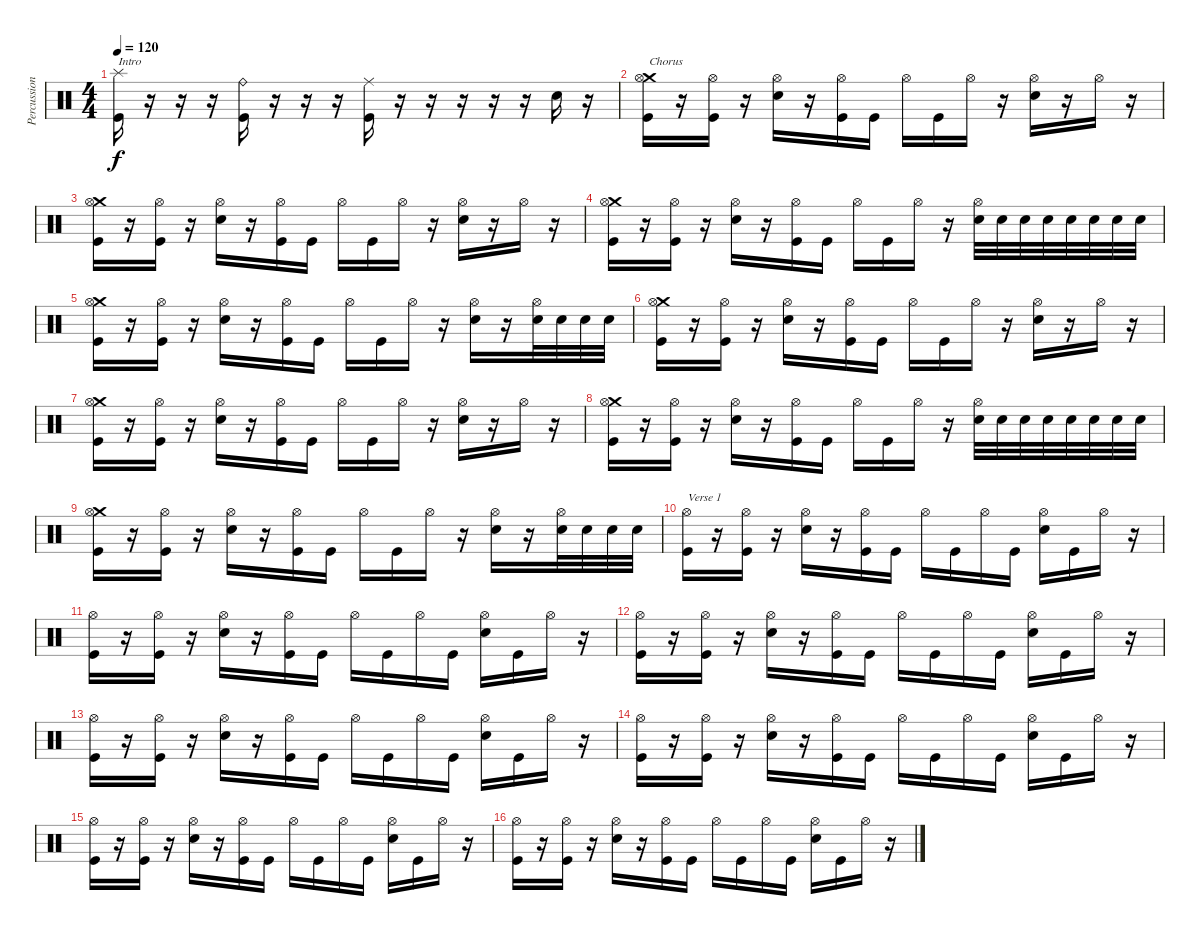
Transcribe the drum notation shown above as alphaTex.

\track ("Percussion" "Percussion") {instrument percussion}
\staff {score}
\articulation defaults
\ts (4 4)
\tempo 120
\clef neutral
\ks c
("Splash (hit)" "Kick (hit)").16{txt "Intro" dy f} r.16 r.16 r.16 ("Ride (bell)" "Kick (hit)").16 r.16 r.16 r.16 ("Ride (middle)" "Kick (hit)").16 r.16 r.16 r.16 r.16 r.16 "Electric Snare (hit)".16 r.16 |
("Crash medium (hit)" "Hi-Hat (open)" "Kick (hit)").16{txt "Chorus"} r.16 ("Hi-Hat (open)" "Kick (hit)").16 r.16 ("Hi-Hat (open)" "Electric Snare (hit)").16 r.16 ("Hi-Hat (open)" "Kick (hit)").16 "Kick (hit)".16 "Hi-Hat (open)".16 "Kick (hit)".16 "Hi-Hat (open)".16 r.16 ("Hi-Hat (open)" "Electric Snare (hit)").16 r.16 "Hi-Hat (open)".16 r.16 |
("Crash medium (hit)" "Hi-Hat (open)" "Kick (hit)").16 r.16 ("Hi-Hat (open)" "Kick (hit)").16 r.16 ("Hi-Hat (open)" "Electric Snare (hit)").16 r.16 ("Hi-Hat (open)" "Kick (hit)").16 "Kick (hit)".16 "Hi-Hat (open)".16 "Kick (hit)".16 "Hi-Hat (open)".16 r.16 ("Hi-Hat (open)" "Electric Snare (hit)").16 r.16 "Hi-Hat (open)".16 r.16 |
("Crash medium (hit)" "Hi-Hat (open)" "Kick (hit)").16 r.16 ("Hi-Hat (open)" "Kick (hit)").16 r.16 ("Hi-Hat (open)" "Electric Snare (hit)").16 r.16 ("Hi-Hat (open)" "Kick (hit)").16 "Kick (hit)".16 "Hi-Hat (open)".16 "Kick (hit)".16 "Hi-Hat (open)".16 r.16 ("Hi-Hat (open)" "Electric Snare (hit)").32 "Electric Snare (hit)".32 "Electric Snare (hit)".32 "Electric Snare (hit)".32 "Electric Snare (hit)".32 "Electric Snare (hit)".32 "Electric Snare (hit)".32 "Electric Snare (hit)".32 |
("Crash medium (hit)" "Hi-Hat (open)" "Kick (hit)").16 r.16 ("Hi-Hat (open)" "Kick (hit)").16 r.16 ("Hi-Hat (open)" "Electric Snare (hit)").16 r.16 ("Hi-Hat (open)" "Kick (hit)").16 "Kick (hit)".16 "Hi-Hat (open)".16 "Kick (hit)".16 "Hi-Hat (open)".16 r.16 ("Hi-Hat (open)" "Electric Snare (hit)").16 r.16 ("Hi-Hat (open)" "Electric Snare (hit)").32 "Electric Snare (hit)".32 "Electric Snare (hit)".32 "Electric Snare (hit)".32 |
("Crash medium (hit)" "Hi-Hat (open)" "Kick (hit)").16 r.16 ("Hi-Hat (open)" "Kick (hit)").16 r.16 ("Hi-Hat (open)" "Electric Snare (hit)").16 r.16 ("Hi-Hat (open)" "Kick (hit)").16 "Kick (hit)".16 "Hi-Hat (open)".16 "Kick (hit)".16 "Hi-Hat (open)".16 r.16 ("Hi-Hat (open)" "Electric Snare (hit)").16 r.16 "Hi-Hat (open)".16 r.16 |
("Crash medium (hit)" "Hi-Hat (open)" "Kick (hit)").16 r.16 ("Hi-Hat (open)" "Kick (hit)").16 r.16 ("Hi-Hat (open)" "Electric Snare (hit)").16 r.16 ("Hi-Hat (open)" "Kick (hit)").16 "Kick (hit)".16 "Hi-Hat (open)".16 "Kick (hit)".16 "Hi-Hat (open)".16 r.16 ("Hi-Hat (open)" "Electric Snare (hit)").16 r.16 "Hi-Hat (open)".16 r.16 |
("Crash medium (hit)" "Hi-Hat (open)" "Kick (hit)").16 r.16 ("Hi-Hat (open)" "Kick (hit)").16 r.16 ("Hi-Hat (open)" "Electric Snare (hit)").16 r.16 ("Hi-Hat (open)" "Kick (hit)").16 "Kick (hit)".16 "Hi-Hat (open)".16 "Kick (hit)".16 "Hi-Hat (open)".16 r.16 ("Hi-Hat (open)" "Electric Snare (hit)").32 "Electric Snare (hit)".32 "Electric Snare (hit)".32 "Electric Snare (hit)".32 "Electric Snare (hit)".32 "Electric Snare (hit)".32 "Electric Snare (hit)".32 "Electric Snare (hit)".32 |
("Crash medium (hit)" "Hi-Hat (open)" "Kick (hit)").16 r.16 ("Hi-Hat (open)" "Kick (hit)").16 r.16 ("Hi-Hat (open)" "Electric Snare (hit)").16 r.16 ("Hi-Hat (open)" "Kick (hit)").16 "Kick (hit)".16 "Hi-Hat (open)".16 "Kick (hit)".16 "Hi-Hat (open)".16 r.16 ("Hi-Hat (open)" "Electric Snare (hit)").16 r.16 ("Hi-Hat (open)" "Electric Snare (hit)").32 "Electric Snare (hit)".32 "Electric Snare (hit)".32 "Electric Snare (hit)".32 |
("Hi-Hat (open)" "Kick (hit)").16{txt "Verse 1"} r.16 ("Hi-Hat (open)" "Kick (hit)").16 r.16 ("Hi-Hat (open)" "Electric Snare (hit)").16 r.16 ("Hi-Hat (open)" "Kick (hit)").16 "Kick (hit)".16 "Hi-Hat (open)".16 "Kick (hit)".16 "Hi-Hat (open)".16 "Kick (hit)".16 ("Hi-Hat (open)" "Electric Snare (hit)").16 "Kick (hit)".16 "Hi-Hat (open)".16 r.16 |
("Hi-Hat (open)" "Kick (hit)").16 r.16 ("Hi-Hat (open)" "Kick (hit)").16 r.16 ("Hi-Hat (open)" "Electric Snare (hit)").16 r.16 ("Hi-Hat (open)" "Kick (hit)").16 "Kick (hit)".16 "Hi-Hat (open)".16 "Kick (hit)".16 "Hi-Hat (open)".16 "Kick (hit)".16 ("Hi-Hat (open)" "Electric Snare (hit)").16 "Kick (hit)".16 "Hi-Hat (open)".16 r.16 |
("Hi-Hat (open)" "Kick (hit)").16 r.16 ("Hi-Hat (open)" "Kick (hit)").16 r.16 ("Hi-Hat (open)" "Electric Snare (hit)").16 r.16 ("Hi-Hat (open)" "Kick (hit)").16 "Kick (hit)".16 "Hi-Hat (open)".16 "Kick (hit)".16 "Hi-Hat (open)".16 "Kick (hit)".16 ("Hi-Hat (open)" "Electric Snare (hit)").16 "Kick (hit)".16 "Hi-Hat (open)".16 r.16 |
("Hi-Hat (open)" "Kick (hit)").16 r.16 ("Hi-Hat (open)" "Kick (hit)").16 r.16 ("Hi-Hat (open)" "Electric Snare (hit)").16 r.16 ("Hi-Hat (open)" "Kick (hit)").16 "Kick (hit)".16 "Hi-Hat (open)".16 "Kick (hit)".16 "Hi-Hat (open)".16 "Kick (hit)".16 ("Hi-Hat (open)" "Electric Snare (hit)").16 "Kick (hit)".16 "Hi-Hat (open)".16 r.16 |
("Hi-Hat (open)" "Kick (hit)").16 r.16 ("Hi-Hat (open)" "Kick (hit)").16 r.16 ("Hi-Hat (open)" "Electric Snare (hit)").16 r.16 ("Hi-Hat (open)" "Kick (hit)").16 "Kick (hit)".16 "Hi-Hat (open)".16 "Kick (hit)".16 "Hi-Hat (open)".16 "Kick (hit)".16 ("Hi-Hat (open)" "Electric Snare (hit)").16 "Kick (hit)".16 "Hi-Hat (open)".16 r.16 |
("Hi-Hat (open)" "Kick (hit)").16 r.16 ("Hi-Hat (open)" "Kick (hit)").16 r.16 ("Hi-Hat (open)" "Electric Snare (hit)").16 r.16 ("Hi-Hat (open)" "Kick (hit)").16 "Kick (hit)".16 "Hi-Hat (open)".16 "Kick (hit)".16 "Hi-Hat (open)".16 "Kick (hit)".16 ("Hi-Hat (open)" "Electric Snare (hit)").16 "Kick (hit)".16 "Hi-Hat (open)".16 r.16 |
("Hi-Hat (open)" "Kick (hit)").16 r.16 ("Hi-Hat (open)" "Kick (hit)").16 r.16 ("Hi-Hat (open)" "Electric Snare (hit)").16 r.16 ("Hi-Hat (open)" "Kick (hit)").16 "Kick (hit)".16 "Hi-Hat (open)".16 "Kick (hit)".16 "Hi-Hat (open)".16 "Kick (hit)".16 ("Hi-Hat (open)" "Electric Snare (hit)").16 "Kick (hit)".16 "Hi-Hat (open)".16 r.16
